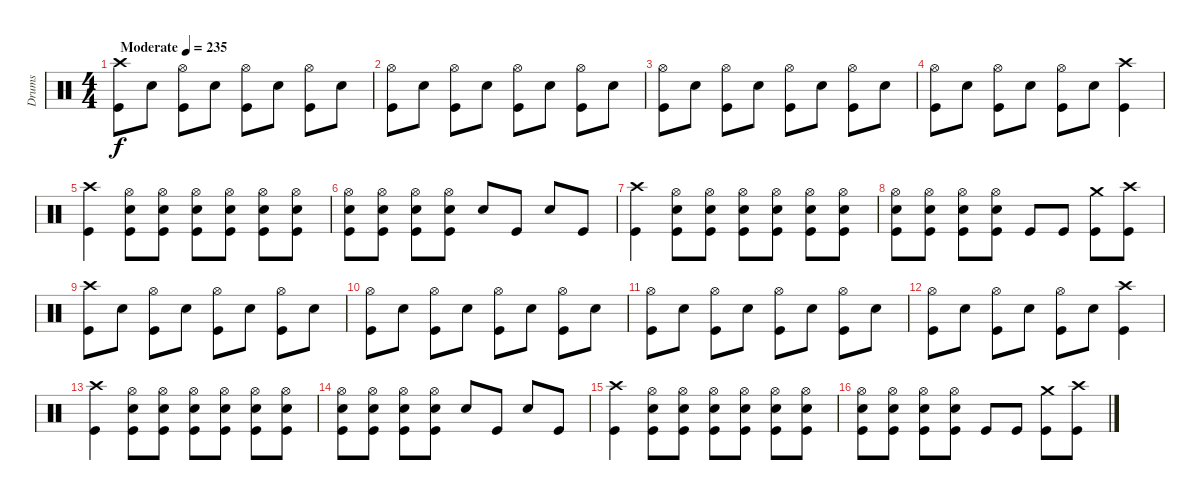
\track ("Drums" "Drums") {instrument percussion}
\staff {score}
\articulation defaults
\ts (4 4)
\tempo (235 "Moderate")
\clef neutral
\ks c
("Crash high (hit)" "Kick (hit)").8{dy f} "Snare (hit) 2".8 ("Hi-Hat (open)" "Kick (hit)").8 "Snare (hit) 2".8 ("Hi-Hat (open)" "Kick (hit)").8 "Snare (hit) 2".8 ("Hi-Hat (open)" "Kick (hit)").8 "Snare (hit) 2".8 |
("Hi-Hat (open)" "Kick (hit)").8 "Snare (hit) 2".8 ("Hi-Hat (open)" "Kick (hit)").8 "Snare (hit) 2".8 ("Hi-Hat (open)" "Kick (hit)").8 "Snare (hit) 2".8 ("Hi-Hat (open)" "Kick (hit)").8 "Snare (hit) 2".8 |
("Hi-Hat (open)" "Kick (hit)").8 "Snare (hit) 2".8 ("Hi-Hat (open)" "Kick (hit)").8 "Snare (hit) 2".8 ("Hi-Hat (open)" "Kick (hit)").8 "Snare (hit) 2".8 ("Hi-Hat (open)" "Kick (hit)").8 "Snare (hit) 2".8 |
("Hi-Hat (open)" "Kick (hit)").8 "Snare (hit) 2".8 ("Hi-Hat (open)" "Kick (hit)").8 "Snare (hit) 2".8 ("Hi-Hat (open)" "Kick (hit)").8 "Snare (hit) 2".8 ("Crash high (hit)" "Kick (hit)").4 |
("Crash high (hit)" "Kick (hit)").4 ("Hi-Hat (open)" "Snare (hit) 2" "Kick (hit)").8 ("Hi-Hat (open)" "Snare (hit) 2" "Kick (hit)").8 ("Hi-Hat (open)" "Snare (hit) 2" "Kick (hit)").8 ("Hi-Hat (open)" "Snare (hit) 2" "Kick (hit)").8 ("Hi-Hat (open)" "Snare (hit) 2" "Kick (hit)").8 ("Hi-Hat (open)" "Snare (hit) 2" "Kick (hit)").8 |
("Hi-Hat (open)" "Snare (hit) 2" "Kick (hit)").8 ("Hi-Hat (open)" "Snare (hit) 2" "Kick (hit)").8 ("Hi-Hat (open)" "Snare (hit) 2" "Kick (hit)").8 ("Hi-Hat (open)" "Snare (hit) 2" "Kick (hit)").8 "Snare (hit) 2".8 "Kick (hit)".8 "Snare (hit) 2".8 "Kick (hit)".8 |
("Crash high (hit)" "Kick (hit)").4 ("Hi-Hat (open)" "Snare (hit) 2" "Kick (hit)").8 ("Hi-Hat (open)" "Snare (hit) 2" "Kick (hit)").8 ("Hi-Hat (open)" "Snare (hit) 2" "Kick (hit)").8 ("Hi-Hat (open)" "Snare (hit) 2" "Kick (hit)").8 ("Hi-Hat (open)" "Snare (hit) 2" "Kick (hit)").8 ("Hi-Hat (open)" "Snare (hit) 2" "Kick (hit)").8 |
("Hi-Hat (open)" "Snare (hit) 2" "Kick (hit)").8 ("Hi-Hat (open)" "Snare (hit) 2" "Kick (hit)").8 ("Hi-Hat (open)" "Snare (hit) 2" "Kick (hit)").8 ("Hi-Hat (open)" "Snare (hit) 2" "Kick (hit)").8 "Kick (hit)".8 "Kick (hit)".8 ("Crash medium (hit)" "Kick (hit)").8 ("Crash high (hit)" "Kick (hit)").8 |
("Crash high (hit)" "Kick (hit)").8 "Snare (hit) 2".8 ("Hi-Hat (open)" "Kick (hit)").8 "Snare (hit) 2".8 ("Hi-Hat (open)" "Kick (hit)").8 "Snare (hit) 2".8 ("Hi-Hat (open)" "Kick (hit)").8 "Snare (hit) 2".8 |
("Hi-Hat (open)" "Kick (hit)").8 "Snare (hit) 2".8 ("Hi-Hat (open)" "Kick (hit)").8 "Snare (hit) 2".8 ("Hi-Hat (open)" "Kick (hit)").8 "Snare (hit) 2".8 ("Hi-Hat (open)" "Kick (hit)").8 "Snare (hit) 2".8 |
("Hi-Hat (open)" "Kick (hit)").8 "Snare (hit) 2".8 ("Hi-Hat (open)" "Kick (hit)").8 "Snare (hit) 2".8 ("Hi-Hat (open)" "Kick (hit)").8 "Snare (hit) 2".8 ("Hi-Hat (open)" "Kick (hit)").8 "Snare (hit) 2".8 |
("Hi-Hat (open)" "Kick (hit)").8 "Snare (hit) 2".8 ("Hi-Hat (open)" "Kick (hit)").8 "Snare (hit) 2".8 ("Hi-Hat (open)" "Kick (hit)").8 "Snare (hit) 2".8 ("Crash high (hit)" "Kick (hit)").4 |
("Crash high (hit)" "Kick (hit)").4 ("Hi-Hat (open)" "Snare (hit) 2" "Kick (hit)").8 ("Hi-Hat (open)" "Snare (hit) 2" "Kick (hit)").8 ("Hi-Hat (open)" "Snare (hit) 2" "Kick (hit)").8 ("Hi-Hat (open)" "Snare (hit) 2" "Kick (hit)").8 ("Hi-Hat (open)" "Snare (hit) 2" "Kick (hit)").8 ("Hi-Hat (open)" "Snare (hit) 2" "Kick (hit)").8 |
("Hi-Hat (open)" "Snare (hit) 2" "Kick (hit)").8 ("Hi-Hat (open)" "Snare (hit) 2" "Kick (hit)").8 ("Hi-Hat (open)" "Snare (hit) 2" "Kick (hit)").8 ("Hi-Hat (open)" "Snare (hit) 2" "Kick (hit)").8 "Snare (hit) 2".8 "Kick (hit)".8 "Snare (hit) 2".8 "Kick (hit)".8 |
("Crash high (hit)" "Kick (hit)").4 ("Hi-Hat (open)" "Snare (hit) 2" "Kick (hit)").8 ("Hi-Hat (open)" "Snare (hit) 2" "Kick (hit)").8 ("Hi-Hat (open)" "Snare (hit) 2" "Kick (hit)").8 ("Hi-Hat (open)" "Snare (hit) 2" "Kick (hit)").8 ("Hi-Hat (open)" "Snare (hit) 2" "Kick (hit)").8 ("Hi-Hat (open)" "Snare (hit) 2" "Kick (hit)").8 |
("Hi-Hat (open)" "Snare (hit) 2" "Kick (hit)").8 ("Hi-Hat (open)" "Snare (hit) 2" "Kick (hit)").8 ("Hi-Hat (open)" "Snare (hit) 2" "Kick (hit)").8 ("Hi-Hat (open)" "Snare (hit) 2" "Kick (hit)").8 "Kick (hit)".8 "Kick (hit)".8 ("Crash medium (hit)" "Kick (hit)").8 ("Crash high (hit)" "Kick (hit)").8
